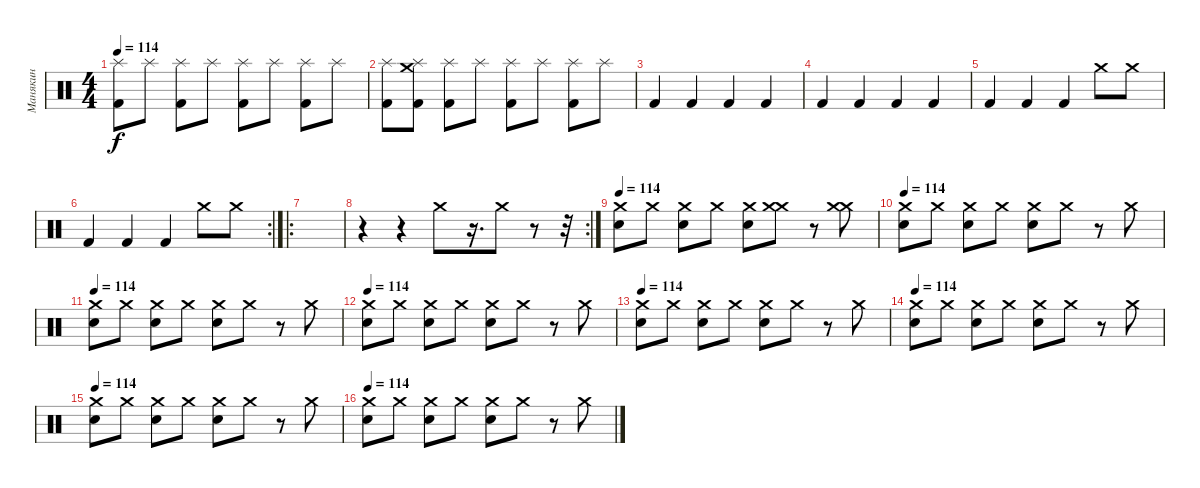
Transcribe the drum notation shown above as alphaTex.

\track ("Манякин" "Манякин") {instrument percussion}
\staff {score}
\articulation defaults
\ts (4 4)
\tempo 114
\clef neutral
\ks c
("Kick (hit) 2" "Splash (hit)").8{dy f} "Splash (hit)".8 ("Kick (hit) 2" "Splash (hit)").8 "Splash (hit)".8 ("Kick (hit) 2" "Splash (hit)").8 "Splash (hit)".8 ("Kick (hit) 2" "Splash (hit)").8 "Splash (hit)".8 |
("Kick (hit) 2" "Splash (hit)").8 ("Kick (hit) 2" "Crash medium (hit)" "Splash (hit)").8 ("Kick (hit) 2" "Splash (hit)").8 "Splash (hit)".8 ("Kick (hit) 2" "Splash (hit)").8 "Splash (hit)".8 ("Kick (hit) 2" "Splash (hit)").8 "Splash (hit)".8 |
"Kick (hit) 2".4 "Kick (hit) 2".4 "Kick (hit) 2".4 "Kick (hit) 2".4 |
"Kick (hit) 2".4 "Kick (hit) 2".4 "Kick (hit) 2".4 "Kick (hit) 2".4 |
"Kick (hit) 2".4 "Kick (hit) 2".4 "Kick (hit) 2".4 "Crash medium (hit)".8 "Crash medium (hit)".8 |
\rc 2 "Kick (hit) 2".4 "Kick (hit) 2".4 "Kick (hit) 2".4 "Crash medium (hit)".8 "Crash medium (hit)".8
|
\ro
|
\rc 2
r.4 r.4 "Crash medium (hit)".8 r.16{d} "Crash medium (hit)".8 r.8 r.32 |
\tempo 114
("Snare (hit) 2" "Crash medium (hit)").8{volume 8} "Crash medium (hit)".8 ("Snare (hit) 2" "Crash medium (hit)").8 "Crash medium (hit)".8 ("Snare (hit) 2" "Crash medium (hit)").8 ("Crash medium (hit)" "Crash medium (hit)").8 r.8 ("Crash medium (hit)" "Crash medium (hit)").8 |
\tempo 114
("Snare (hit) 2" "Crash medium (hit)").8{volume 8} "Crash medium (hit)".8 ("Snare (hit) 2" "Crash medium (hit)").8 "Crash medium (hit)".8 ("Snare (hit) 2" "Crash medium (hit)").8 "Crash medium (hit)".8 r.8 "Crash medium (hit)".8 |
\tempo 114
("Snare (hit) 2" "Crash medium (hit)").8{volume 8} "Crash medium (hit)".8 ("Snare (hit) 2" "Crash medium (hit)").8 "Crash medium (hit)".8 ("Snare (hit) 2" "Crash medium (hit)").8 "Crash medium (hit)".8 r.8 "Crash medium (hit)".8 |
\tempo 114
("Snare (hit) 2" "Crash medium (hit)").8{volume 8} "Crash medium (hit)".8 ("Snare (hit) 2" "Crash medium (hit)").8 "Crash medium (hit)".8 ("Snare (hit) 2" "Crash medium (hit)").8 "Crash medium (hit)".8 r.8 "Crash medium (hit)".8 |
\tempo 114
("Snare (hit) 2" "Crash medium (hit)").8{volume 8} "Crash medium (hit)".8 ("Snare (hit) 2" "Crash medium (hit)").8 "Crash medium (hit)".8 ("Snare (hit) 2" "Crash medium (hit)").8 "Crash medium (hit)".8 r.8 "Crash medium (hit)".8 |
\tempo 114
("Snare (hit) 2" "Crash medium (hit)").8{volume 8} "Crash medium (hit)".8 ("Snare (hit) 2" "Crash medium (hit)").8 "Crash medium (hit)".8 ("Snare (hit) 2" "Crash medium (hit)").8 "Crash medium (hit)".8 r.8 "Crash medium (hit)".8 |
\tempo 114
("Snare (hit) 2" "Crash medium (hit)").8{volume 8} "Crash medium (hit)".8 ("Snare (hit) 2" "Crash medium (hit)").8 "Crash medium (hit)".8 ("Snare (hit) 2" "Crash medium (hit)").8 "Crash medium (hit)".8 r.8 "Crash medium (hit)".8 |
\tempo 114
("Snare (hit) 2" "Crash medium (hit)").8{volume 8} "Crash medium (hit)".8 ("Snare (hit) 2" "Crash medium (hit)").8 "Crash medium (hit)".8 ("Snare (hit) 2" "Crash medium (hit)").8 "Crash medium (hit)".8 r.8 "Crash medium (hit)".8
